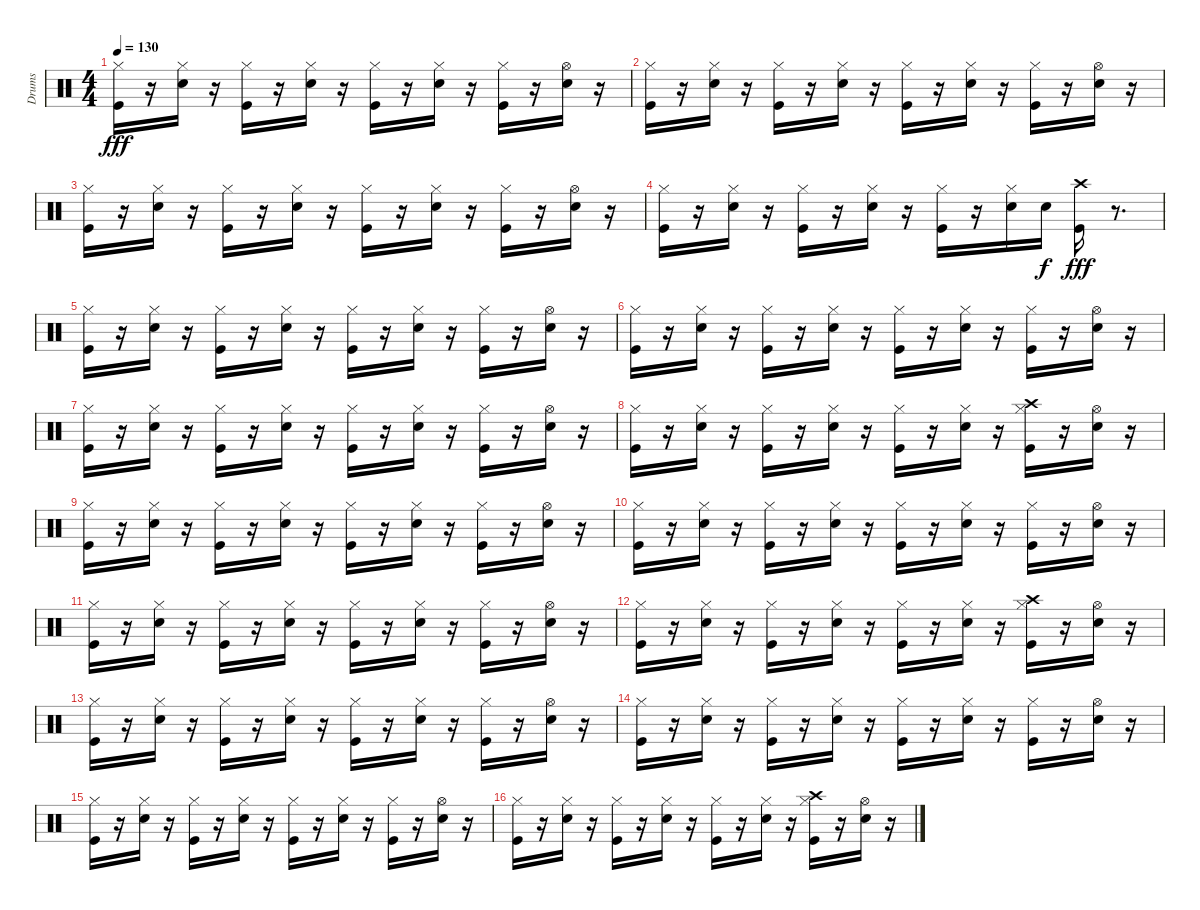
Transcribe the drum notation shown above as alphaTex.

\track ("Drums" "Drums") {instrument percussion}
\staff {score}
\articulation defaults
\ts (4 4)
\tempo 130
\clef neutral
\ks c
("Hi-Hat (closed)" "Kick (hit)").16{dy fff} r.16 ("Hi-Hat (closed)" "Electric Snare (hit)").16 r.16 ("Hi-Hat (closed)" "Kick (hit)").16 r.16 ("Hi-Hat (closed)" "Electric Snare (hit)").16 r.16 ("Hi-Hat (closed)" "Kick (hit)").16 r.16 ("Hi-Hat (closed)" "Electric Snare (hit)").16 r.16 ("Hi-Hat (closed)" "Kick (hit)").16 r.16 ("Hi-Hat (open)" "Electric Snare (hit)").16 r.16 |
("Hi-Hat (closed)" "Kick (hit)").16 r.16 ("Hi-Hat (closed)" "Electric Snare (hit)").16 r.16 ("Hi-Hat (closed)" "Kick (hit)").16 r.16 ("Hi-Hat (closed)" "Electric Snare (hit)").16 r.16 ("Hi-Hat (closed)" "Kick (hit)").16 r.16 ("Hi-Hat (closed)" "Electric Snare (hit)").16 r.16 ("Hi-Hat (closed)" "Kick (hit)").16 r.16 ("Hi-Hat (open)" "Electric Snare (hit)").16 r.16 |
("Hi-Hat (closed)" "Kick (hit)").16 r.16 ("Hi-Hat (closed)" "Electric Snare (hit)").16 r.16 ("Hi-Hat (closed)" "Kick (hit)").16 r.16 ("Hi-Hat (closed)" "Electric Snare (hit)").16 r.16 ("Hi-Hat (closed)" "Kick (hit)").16 r.16 ("Hi-Hat (closed)" "Electric Snare (hit)").16 r.16 ("Hi-Hat (closed)" "Kick (hit)").16 r.16 ("Hi-Hat (open)" "Electric Snare (hit)").16 r.16 |
("Hi-Hat (closed)" "Kick (hit)").16 r.16 ("Hi-Hat (closed)" "Electric Snare (hit)").16 r.16 ("Hi-Hat (closed)" "Kick (hit)").16 r.16 ("Hi-Hat (closed)" "Electric Snare (hit)").16 r.16 ("Hi-Hat (closed)" "Kick (hit)").16 r.16 ("Hi-Hat (closed)" "Electric Snare (hit)").16 "Electric Snare (hit)".16{dy f} ("Crash high (hit)" "Kick (hit)").16{dy fff} r.8{d} |
("Hi-Hat (closed)" "Kick (hit)").16 r.16 ("Hi-Hat (closed)" "Electric Snare (hit)").16 r.16 ("Hi-Hat (closed)" "Kick (hit)").16 r.16 ("Hi-Hat (closed)" "Electric Snare (hit)").16 r.16 ("Hi-Hat (closed)" "Kick (hit)").16 r.16 ("Hi-Hat (closed)" "Electric Snare (hit)").16 r.16 ("Hi-Hat (closed)" "Kick (hit)").16 r.16 ("Hi-Hat (open)" "Electric Snare (hit)").16 r.16 |
("Hi-Hat (closed)" "Kick (hit)").16 r.16 ("Hi-Hat (closed)" "Electric Snare (hit)").16 r.16 ("Hi-Hat (closed)" "Kick (hit)").16 r.16 ("Hi-Hat (closed)" "Electric Snare (hit)").16 r.16 ("Hi-Hat (closed)" "Kick (hit)").16 r.16 ("Hi-Hat (closed)" "Electric Snare (hit)").16 r.16 ("Hi-Hat (closed)" "Kick (hit)").16 r.16 ("Hi-Hat (open)" "Electric Snare (hit)").16 r.16 |
("Hi-Hat (closed)" "Kick (hit)").16 r.16 ("Hi-Hat (closed)" "Electric Snare (hit)").16 r.16 ("Hi-Hat (closed)" "Kick (hit)").16 r.16 ("Hi-Hat (closed)" "Electric Snare (hit)").16 r.16 ("Hi-Hat (closed)" "Kick (hit)").16 r.16 ("Hi-Hat (closed)" "Electric Snare (hit)").16 r.16 ("Hi-Hat (closed)" "Kick (hit)").16 r.16 ("Hi-Hat (open)" "Electric Snare (hit)").16 r.16 |
("Hi-Hat (closed)" "Kick (hit)").16 r.16 ("Hi-Hat (closed)" "Electric Snare (hit)").16 r.16 ("Hi-Hat (closed)" "Kick (hit)").16 r.16 ("Hi-Hat (closed)" "Electric Snare (hit)").16 r.16 ("Hi-Hat (closed)" "Kick (hit)").16 r.16 ("Hi-Hat (closed)" "Electric Snare (hit)").16 r.16 ("Hi-Hat (closed)" "Crash high (hit)" "Kick (hit)").16 r.16 ("Hi-Hat (open)" "Electric Snare (hit)").16 r.16 |
("Hi-Hat (closed)" "Kick (hit)").16 r.16 ("Hi-Hat (closed)" "Electric Snare (hit)").16 r.16 ("Hi-Hat (closed)" "Kick (hit)").16 r.16 ("Hi-Hat (closed)" "Electric Snare (hit)").16 r.16 ("Hi-Hat (closed)" "Kick (hit)").16 r.16 ("Hi-Hat (closed)" "Electric Snare (hit)").16 r.16 ("Hi-Hat (closed)" "Kick (hit)").16 r.16 ("Hi-Hat (open)" "Electric Snare (hit)").16 r.16 |
("Hi-Hat (closed)" "Kick (hit)").16 r.16 ("Hi-Hat (closed)" "Electric Snare (hit)").16 r.16 ("Hi-Hat (closed)" "Kick (hit)").16 r.16 ("Hi-Hat (closed)" "Electric Snare (hit)").16 r.16 ("Hi-Hat (closed)" "Kick (hit)").16 r.16 ("Hi-Hat (closed)" "Electric Snare (hit)").16 r.16 ("Hi-Hat (closed)" "Kick (hit)").16 r.16 ("Hi-Hat (open)" "Electric Snare (hit)").16 r.16 |
("Hi-Hat (closed)" "Kick (hit)").16 r.16 ("Hi-Hat (closed)" "Electric Snare (hit)").16 r.16 ("Hi-Hat (closed)" "Kick (hit)").16 r.16 ("Hi-Hat (closed)" "Electric Snare (hit)").16 r.16 ("Hi-Hat (closed)" "Kick (hit)").16 r.16 ("Hi-Hat (closed)" "Electric Snare (hit)").16 r.16 ("Hi-Hat (closed)" "Kick (hit)").16 r.16 ("Hi-Hat (open)" "Electric Snare (hit)").16 r.16 |
("Hi-Hat (closed)" "Kick (hit)").16 r.16 ("Hi-Hat (closed)" "Electric Snare (hit)").16 r.16 ("Hi-Hat (closed)" "Kick (hit)").16 r.16 ("Hi-Hat (closed)" "Electric Snare (hit)").16 r.16 ("Hi-Hat (closed)" "Kick (hit)").16 r.16 ("Hi-Hat (closed)" "Electric Snare (hit)").16 r.16 ("Hi-Hat (closed)" "Crash high (hit)" "Kick (hit)").16 r.16 ("Hi-Hat (open)" "Electric Snare (hit)").16 r.16 |
("Hi-Hat (closed)" "Kick (hit)").16 r.16 ("Hi-Hat (closed)" "Electric Snare (hit)").16 r.16 ("Hi-Hat (closed)" "Kick (hit)").16 r.16 ("Hi-Hat (closed)" "Electric Snare (hit)").16 r.16 ("Hi-Hat (closed)" "Kick (hit)").16 r.16 ("Hi-Hat (closed)" "Electric Snare (hit)").16 r.16 ("Hi-Hat (closed)" "Kick (hit)").16 r.16 ("Hi-Hat (open)" "Electric Snare (hit)").16 r.16 |
("Hi-Hat (closed)" "Kick (hit)").16 r.16 ("Hi-Hat (closed)" "Electric Snare (hit)").16 r.16 ("Hi-Hat (closed)" "Kick (hit)").16 r.16 ("Hi-Hat (closed)" "Electric Snare (hit)").16 r.16 ("Hi-Hat (closed)" "Kick (hit)").16 r.16 ("Hi-Hat (closed)" "Electric Snare (hit)").16 r.16 ("Hi-Hat (closed)" "Kick (hit)").16 r.16 ("Hi-Hat (open)" "Electric Snare (hit)").16 r.16 |
("Hi-Hat (closed)" "Kick (hit)").16 r.16 ("Hi-Hat (closed)" "Electric Snare (hit)").16 r.16 ("Hi-Hat (closed)" "Kick (hit)").16 r.16 ("Hi-Hat (closed)" "Electric Snare (hit)").16 r.16 ("Hi-Hat (closed)" "Kick (hit)").16 r.16 ("Hi-Hat (closed)" "Electric Snare (hit)").16 r.16 ("Hi-Hat (closed)" "Kick (hit)").16 r.16 ("Hi-Hat (open)" "Electric Snare (hit)").16 r.16 |
("Hi-Hat (closed)" "Kick (hit)").16 r.16 ("Hi-Hat (closed)" "Electric Snare (hit)").16 r.16 ("Hi-Hat (closed)" "Kick (hit)").16 r.16 ("Hi-Hat (closed)" "Electric Snare (hit)").16 r.16 ("Hi-Hat (closed)" "Kick (hit)").16 r.16 ("Hi-Hat (closed)" "Electric Snare (hit)").16 r.16 ("Hi-Hat (closed)" "Crash high (hit)" "Kick (hit)").16 r.16 ("Hi-Hat (open)" "Electric Snare (hit)").16 r.16
